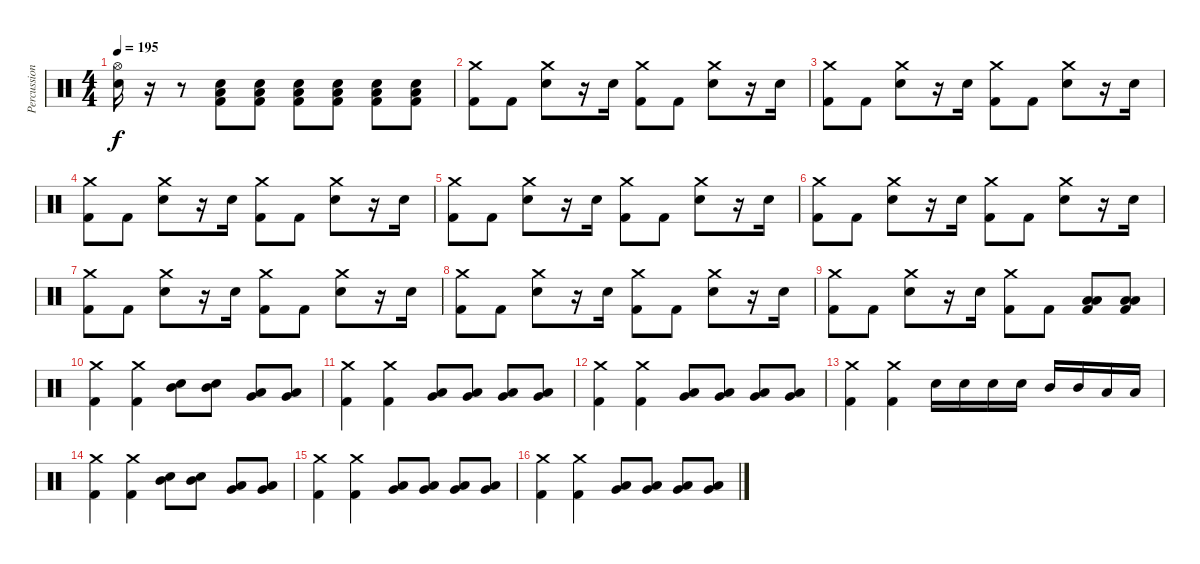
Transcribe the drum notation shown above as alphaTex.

\track ("Percussions" "Percussion") {instrument percussion}
\staff {score}
\articulation defaults
\ts (4 4)
\tempo 195
\clef neutral
\ks c
("Electric Snare (hit)" "Hi-Hat (open)").16{dy f} r.16 r.8 ("Electric Snare (hit)" "Kick (hit) 2" "Low Floor Tom (hit)").8 ("Electric Snare (hit)" "Kick (hit) 2" "Low Floor Tom (hit)").8 ("Electric Snare (hit)" "Kick (hit) 2" "Low Floor Tom (hit)").8 ("Electric Snare (hit)" "Kick (hit) 2" "Low Floor Tom (hit)").8 ("Electric Snare (hit)" "Low Floor Tom (hit)" "Kick (hit) 2").8 ("Electric Snare (hit)" "Low Floor Tom (hit)" "Kick (hit) 2").8 |
("Kick (hit) 2" "Crash medium (hit)").8 "Kick (hit) 2".8 ("Electric Snare (hit)" "Crash medium (hit)").8 r.16 "Electric Snare (hit)".16 ("Kick (hit) 2" "Crash medium (hit)").8 "Kick (hit) 2".8 ("Electric Snare (hit)" "Crash medium (hit)").8 r.16 "Electric Snare (hit)".16 |
("Kick (hit) 2" "Crash medium (hit)").8 "Kick (hit) 2".8 ("Electric Snare (hit)" "Crash medium (hit)").8 r.16 "Electric Snare (hit)".16 ("Kick (hit) 2" "Crash medium (hit)").8 "Kick (hit) 2".8 ("Electric Snare (hit)" "Crash medium (hit)").8 r.16 "Electric Snare (hit)".16 |
("Kick (hit) 2" "Crash medium (hit)").8 "Kick (hit) 2".8 ("Electric Snare (hit)" "Crash medium (hit)").8 r.16 "Electric Snare (hit)".16 ("Kick (hit) 2" "Crash medium (hit)").8 "Kick (hit) 2".8 ("Electric Snare (hit)" "Crash medium (hit)").8 r.16 "Electric Snare (hit)".16 |
("Kick (hit) 2" "Crash medium (hit)").8 "Kick (hit) 2".8 ("Electric Snare (hit)" "Crash medium (hit)").8 r.16 "Electric Snare (hit)".16 ("Kick (hit) 2" "Crash medium (hit)").8 "Kick (hit) 2".8 ("Electric Snare (hit)" "Crash medium (hit)").8 r.16 "Electric Snare (hit)".16 |
("Kick (hit) 2" "Crash medium (hit)").8 "Kick (hit) 2".8 ("Electric Snare (hit)" "Crash medium (hit)").8 r.16 "Electric Snare (hit)".16 ("Kick (hit) 2" "Crash medium (hit)").8 "Kick (hit) 2".8 ("Electric Snare (hit)" "Crash medium (hit)").8 r.16 "Electric Snare (hit)".16 |
("Kick (hit) 2" "Crash medium (hit)").8 "Kick (hit) 2".8 ("Electric Snare (hit)" "Crash medium (hit)").8 r.16 "Electric Snare (hit)".16 ("Kick (hit) 2" "Crash medium (hit)").8 "Kick (hit) 2".8 ("Electric Snare (hit)" "Crash medium (hit)").8 r.16 "Electric Snare (hit)".16 |
("Kick (hit) 2" "Crash medium (hit)").8 "Kick (hit) 2".8 ("Electric Snare (hit)" "Crash medium (hit)").8 r.16 "Electric Snare (hit)".16 ("Kick (hit) 2" "Crash medium (hit)").8 "Kick (hit) 2".8 ("Electric Snare (hit)" "Crash medium (hit)").8 r.16 "Electric Snare (hit)".16 |
("Kick (hit) 2" "Crash medium (hit)").8 "Kick (hit) 2".8 ("Electric Snare (hit)" "Crash medium (hit)").8 r.16 "Electric Snare (hit)".16 ("Kick (hit) 2" "Crash medium (hit)").8 "Kick (hit) 2".8 ("Kick (hit) 2" "Low Tom (hit)" "Low Floor Tom (hit)").8 ("Kick (hit) 2" "Low Tom (hit)" "Low Floor Tom (hit)").8 |
("Kick (hit) 2" "Crash medium (hit)").4 ("Kick (hit) 2" "Crash medium (hit)").4 ("Electric Snare (hit)" "Mid Tom (hit)").8 ("Electric Snare (hit)" "Mid Tom (hit)").8 ("Low Tom (hit)" "Very Low Tom (hit)").8 ("Low Tom (hit)" "Very Low Tom (hit)").8 |
("Kick (hit) 2" "Crash medium (hit)").4 ("Kick (hit) 2" "Crash medium (hit)").4 ("Very Low Tom (hit)" "Low Tom (hit)").8 ("Very Low Tom (hit)" "Low Tom (hit)").8 ("Very Low Tom (hit)" "Low Tom (hit)").8 ("Very Low Tom (hit)" "Low Tom (hit)").8 |
("Kick (hit) 2" "Crash medium (hit)").4 ("Kick (hit) 2" "Crash medium (hit)").4 ("Very Low Tom (hit)" "Low Tom (hit)").8 ("Very Low Tom (hit)" "Low Tom (hit)").8 ("Very Low Tom (hit)" "Low Floor Tom (hit)").8 ("Very Low Tom (hit)" "Low Floor Tom (hit)").8 |
("Kick (hit) 2" "Crash medium (hit)").4 ("Kick (hit) 2" "Crash medium (hit)").4 "Electric Snare (hit)".16 "Electric Snare (hit)".16 "Electric Snare (hit)".16 "Electric Snare (hit)".16 "Mid Tom (hit)".16 "Mid Tom (hit)".16 "Low Tom (hit)".16 "Low Tom (hit)".16 |
("Kick (hit) 2" "Crash medium (hit)").4 ("Kick (hit) 2" "Crash medium (hit)").4 ("Electric Snare (hit)" "Mid Tom (hit)").8 ("Electric Snare (hit)" "Mid Tom (hit)").8 ("Low Tom (hit)" "Very Low Tom (hit)").8 ("Low Tom (hit)" "Very Low Tom (hit)").8 |
("Kick (hit) 2" "Crash medium (hit)").4 ("Kick (hit) 2" "Crash medium (hit)").4 ("Very Low Tom (hit)" "Low Tom (hit)").8 ("Very Low Tom (hit)" "Low Tom (hit)").8 ("Very Low Tom (hit)" "Low Tom (hit)").8 ("Very Low Tom (hit)" "Low Tom (hit)").8 |
("Kick (hit) 2" "Crash medium (hit)").4 ("Kick (hit) 2" "Crash medium (hit)").4 ("Very Low Tom (hit)" "Low Tom (hit)").8 ("Very Low Tom (hit)" "Low Tom (hit)").8 ("Very Low Tom (hit)" "Low Floor Tom (hit)").8 ("Very Low Tom (hit)" "Low Floor Tom (hit)").8
